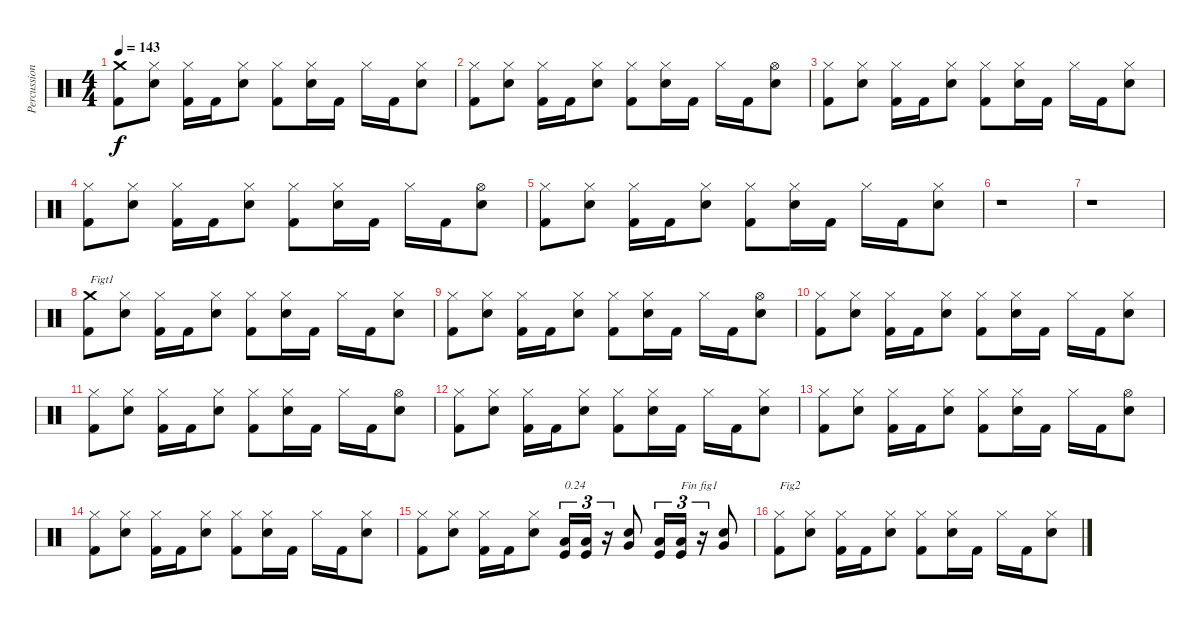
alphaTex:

\track ("Percussions" "Percussion") {instrument percussion}
\staff {score}
\articulation defaults
\ts (4 4)
\tempo 143
\clef neutral
\ks c
("Kick (hit) 2" "Crash medium (hit)").8{dy f volume 0} ("Electric Snare (hit)" "Hi-Hat (closed)").8 ("Kick (hit) 2" "Hi-Hat (closed)").16{volume 7} "Kick (hit) 2".16 ("Electric Snare (hit)" "Hi-Hat (closed)").8 ("Kick (hit) 2" "Hi-Hat (closed)").8 ("Electric Snare (hit)" "Hi-Hat (closed)").16 "Kick (hit) 2".16 "Hi-Hat (closed)".16 "Kick (hit) 2".16 ("Electric Snare (hit)" "Hi-Hat (closed)").8 |
("Kick (hit) 2" "Hi-Hat (closed)").8 ("Electric Snare (hit)" "Hi-Hat (closed)").8 ("Kick (hit) 2" "Hi-Hat (closed)").16 "Kick (hit) 2".16 ("Electric Snare (hit)" "Hi-Hat (closed)").8 ("Kick (hit) 2" "Hi-Hat (closed)").8 ("Electric Snare (hit)" "Hi-Hat (closed)").16 "Kick (hit) 2".16 "Hi-Hat (closed)".16 "Kick (hit) 2".16 ("Electric Snare (hit)" "Hi-Hat (open)").8 |
("Kick (hit) 2" "Hi-Hat (closed)").8 ("Electric Snare (hit)" "Hi-Hat (closed)").8 ("Kick (hit) 2" "Hi-Hat (closed)").16 "Kick (hit) 2".16 ("Electric Snare (hit)" "Hi-Hat (closed)").8 ("Kick (hit) 2" "Hi-Hat (closed)").8{volume 14} ("Electric Snare (hit)" "Hi-Hat (closed)").16 "Kick (hit) 2".16 "Hi-Hat (closed)".16 "Kick (hit) 2".16 ("Electric Snare (hit)" "Hi-Hat (closed)").8 |
("Kick (hit) 2" "Hi-Hat (closed)").8 ("Electric Snare (hit)" "Hi-Hat (closed)").8 ("Kick (hit) 2" "Hi-Hat (closed)").16 "Kick (hit) 2".16 ("Electric Snare (hit)" "Hi-Hat (closed)").8 ("Kick (hit) 2" "Hi-Hat (closed)").8 ("Electric Snare (hit)" "Hi-Hat (closed)").16 "Kick (hit) 2".16 "Hi-Hat (closed)".16 "Kick (hit) 2".16 ("Electric Snare (hit)" "Hi-Hat (open)").8 |
("Kick (hit) 2" "Hi-Hat (closed)").8 ("Electric Snare (hit)" "Hi-Hat (closed)").8 ("Kick (hit) 2" "Hi-Hat (closed)").16 "Kick (hit) 2".16 ("Electric Snare (hit)" "Hi-Hat (closed)").8 ("Kick (hit) 2" "Hi-Hat (closed)").8 ("Electric Snare (hit)" "Hi-Hat (closed)").16 "Kick (hit) 2".16 "Hi-Hat (closed)".16 "Kick (hit) 2".16 ("Electric Snare (hit)" "Hi-Hat (closed)").8 |
r.1{volume 16} |
r.1 |
("Kick (hit) 2" "Crash medium (hit)").8{txt "Figt1"} ("Electric Snare (hit)" "Hi-Hat (closed)").8 ("Kick (hit) 2" "Hi-Hat (closed)").16 "Kick (hit) 2".16 ("Electric Snare (hit)" "Hi-Hat (closed)").8 ("Kick (hit) 2" "Hi-Hat (closed)").8 ("Electric Snare (hit)" "Hi-Hat (closed)").16 "Kick (hit) 2".16 "Hi-Hat (closed)".16 "Kick (hit) 2".16 ("Electric Snare (hit)" "Hi-Hat (closed)").8 |
("Kick (hit) 2" "Hi-Hat (closed)").8 ("Electric Snare (hit)" "Hi-Hat (closed)").8 ("Kick (hit) 2" "Hi-Hat (closed)").16 "Kick (hit) 2".16 ("Electric Snare (hit)" "Hi-Hat (closed)").8 ("Kick (hit) 2" "Hi-Hat (closed)").8 ("Electric Snare (hit)" "Hi-Hat (closed)").16 "Kick (hit) 2".16 "Hi-Hat (closed)".16 "Kick (hit) 2".16 ("Electric Snare (hit)" "Hi-Hat (open)").8 |
("Kick (hit) 2" "Hi-Hat (closed)").8 ("Electric Snare (hit)" "Hi-Hat (closed)").8 ("Kick (hit) 2" "Hi-Hat (closed)").16 "Kick (hit) 2".16 ("Electric Snare (hit)" "Hi-Hat (closed)").8 ("Kick (hit) 2" "Hi-Hat (closed)").8 ("Electric Snare (hit)" "Hi-Hat (closed)").16 "Kick (hit) 2".16 "Hi-Hat (closed)".16 "Kick (hit) 2".16 ("Electric Snare (hit)" "Hi-Hat (closed)").8 |
("Kick (hit) 2" "Hi-Hat (closed)").8 ("Electric Snare (hit)" "Hi-Hat (closed)").8 ("Kick (hit) 2" "Hi-Hat (closed)").16 "Kick (hit) 2".16 ("Electric Snare (hit)" "Hi-Hat (closed)").8 ("Kick (hit) 2" "Hi-Hat (closed)").8 ("Electric Snare (hit)" "Hi-Hat (closed)").16 "Kick (hit) 2".16 "Hi-Hat (closed)".16 "Kick (hit) 2".16 ("Electric Snare (hit)" "Hi-Hat (open)").8 |
("Kick (hit) 2" "Hi-Hat (closed)").8 ("Electric Snare (hit)" "Hi-Hat (closed)").8 ("Kick (hit) 2" "Hi-Hat (closed)").16 "Kick (hit) 2".16 ("Electric Snare (hit)" "Hi-Hat (closed)").8 ("Kick (hit) 2" "Hi-Hat (closed)").8 ("Electric Snare (hit)" "Hi-Hat (closed)").16 "Kick (hit) 2".16 "Hi-Hat (closed)".16 "Kick (hit) 2".16 ("Electric Snare (hit)" "Hi-Hat (closed)").8 |
("Kick (hit) 2" "Hi-Hat (closed)").8 ("Electric Snare (hit)" "Hi-Hat (closed)").8 ("Kick (hit) 2" "Hi-Hat (closed)").16 "Kick (hit) 2".16 ("Electric Snare (hit)" "Hi-Hat (closed)").8 ("Kick (hit) 2" "Hi-Hat (closed)").8 ("Electric Snare (hit)" "Hi-Hat (closed)").16 "Kick (hit) 2".16 "Hi-Hat (closed)".16 "Kick (hit) 2".16 ("Electric Snare (hit)" "Hi-Hat (open)").8 |
("Kick (hit) 2" "Hi-Hat (closed)").8 ("Electric Snare (hit)" "Hi-Hat (closed)").8 ("Kick (hit) 2" "Hi-Hat (closed)").16 "Kick (hit) 2".16 ("Electric Snare (hit)" "Hi-Hat (closed)").8 ("Kick (hit) 2" "Hi-Hat (closed)").8 ("Electric Snare (hit)" "Hi-Hat (closed)").16 "Kick (hit) 2".16 "Hi-Hat (closed)".16 "Kick (hit) 2".16 ("Electric Snare (hit)" "Hi-Hat (closed)").8 |
("Kick (hit) 2" "Hi-Hat (closed)").8 ("Electric Snare (hit)" "Hi-Hat (closed)").8 ("Kick (hit) 2" "Hi-Hat (closed)").16 "Kick (hit) 2".16 ("Electric Snare (hit)" "Hi-Hat (closed)").8 ("Kick (hit)" "Low Floor Tom (hit)").16{tu (3 2) txt "0.24"} ("Kick (hit)" "Low Floor Tom (hit)").16{tu (3 2)} r.16{tu (3 2)} ("Electric Snare (hit)" "Very Low Tom (hit)").8 ("Kick (hit)" "Low Floor Tom (hit)").16{tu (3 2)} ("Kick (hit)" "Low Floor Tom (hit)").16{tu (3 2) txt "Fin fig1"} r.16{tu (3 2)} ("Electric Snare (hit)" "Very Low Tom (hit)").8 |
("Kick (hit) 2" "Hi-Hat (closed)").8{txt "Fig2"} ("Electric Snare (hit)" "Hi-Hat (closed)").8 ("Kick (hit) 2" "Hi-Hat (closed)").16 "Kick (hit) 2".16 ("Electric Snare (hit)" "Hi-Hat (closed)").8 ("Kick (hit) 2" "Hi-Hat (closed)").8 ("Electric Snare (hit)" "Hi-Hat (closed)").16 "Kick (hit) 2".16 "Hi-Hat (closed)".16 "Kick (hit) 2".16 ("Electric Snare (hit)" "Hi-Hat (closed)").8
